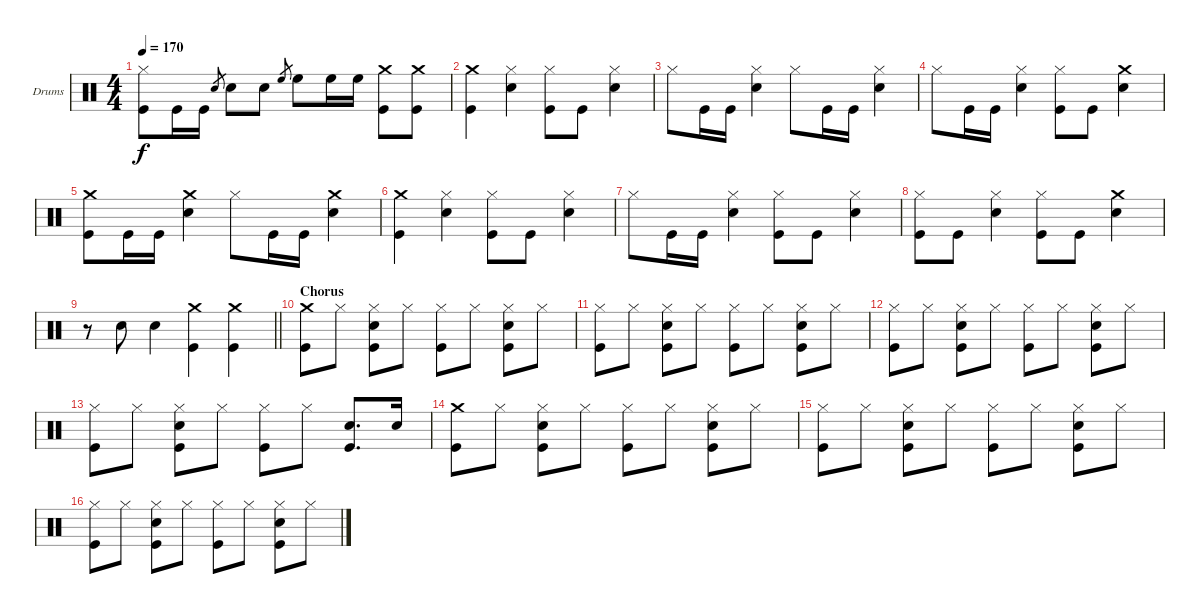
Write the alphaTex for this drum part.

\bracketExtendMode groupsimilarinstruments
\firstSystemTrackNameOrientation horizontal
\otherSystemsTrackNameOrientation horizontal
\track ("Drumkit" "Drums") {instrument percussion}
\staff {score}
\articulation defaults
\ts (4 4)
\tempo 170
\clef neutral
\ks c
("Hi-Hat (closed)" "Kick (hit)").8{dy f} "Kick (hit)".16 "Kick (hit)".16 "Snare (hit) 2".8{gr} "Snare (hit) 2".8 "Snare (hit) 2".8 "High Floor Tom (hit)".8{gr} "High Floor Tom (hit)".8 "High Floor Tom (hit)".16 "High Floor Tom (hit)".16 ("Crash medium (hit)" "Kick (hit)").8 ("Crash medium (hit)" "Kick (hit)").8 |
("Crash medium (hit)" "Kick (hit)").4 ("Hi-Hat (closed)" "Snare (hit) 2").4 ("Hi-Hat (closed)" "Kick (hit)").8 "Kick (hit)".8 ("Hi-Hat (closed)" "Snare (hit) 2").4 |
"Hi-Hat (closed)".8 "Kick (hit)".16 "Kick (hit)".16 ("Hi-Hat (closed)" "Snare (hit) 2").4 "Hi-Hat (closed)".8 "Kick (hit)".16 "Kick (hit)".16 ("Hi-Hat (closed)" "Snare (hit) 2").4 |
"Hi-Hat (closed)".8 "Kick (hit)".16 "Kick (hit)".16 ("Hi-Hat (closed)" "Snare (hit) 2").4 ("Hi-Hat (closed)" "Kick (hit)").8 "Kick (hit)".8 ("Crash medium (hit)" "Snare (hit) 2").4 |
("Crash medium (hit)" "Kick (hit)").8 "Kick (hit)".16 "Kick (hit)".16 ("Crash medium (hit)" "Snare (hit) 2").4 "Hi-Hat (closed)".8 "Kick (hit)".16 "Kick (hit)".16 ("Crash medium (hit)" "Snare (hit) 2").4 |
("Crash medium (hit)" "Kick (hit)").4 ("Hi-Hat (closed)" "Snare (hit) 2").4 ("Hi-Hat (closed)" "Kick (hit)").8 "Kick (hit)".8 ("Hi-Hat (closed)" "Snare (hit) 2").4 |
"Hi-Hat (closed)".8 "Kick (hit)".16 "Kick (hit)".16 ("Hi-Hat (closed)" "Snare (hit) 2").4 ("Hi-Hat (closed)" "Kick (hit)").8 "Kick (hit)".8 ("Hi-Hat (closed)" "Snare (hit) 2").4 |
("Hi-Hat (closed)" "Kick (hit)").8 "Kick (hit)".8 ("Hi-Hat (closed)" "Snare (hit) 2").4 ("Hi-Hat (closed)" "Kick (hit)").8 "Kick (hit)".8 ("Crash medium (hit)" "Snare (hit) 2").4 |
\barLineRight lightlight
r.8 "Snare (hit) 2".8 "Snare (hit) 2".4 ("Crash medium (hit)" "Kick (hit)").4 ("Crash medium (hit)" "Kick (hit)").4 |
\section ("" "Chorus")
("Crash medium (hit)" "Kick (hit)").8 "Hi-Hat (closed)".8 ("Hi-Hat (closed)" "Snare (hit) 2" "Kick (hit)").8 "Hi-Hat (closed)".8 ("Hi-Hat (closed)" "Kick (hit)").8 "Hi-Hat (closed)".8 ("Hi-Hat (closed)" "Snare (hit) 2" "Kick (hit)").8 "Hi-Hat (closed)".8 |
("Hi-Hat (closed)" "Kick (hit)").8 "Hi-Hat (closed)".8 ("Hi-Hat (closed)" "Snare (hit) 2" "Kick (hit)").8 "Hi-Hat (closed)".8 ("Hi-Hat (closed)" "Kick (hit)").8 "Hi-Hat (closed)".8 ("Hi-Hat (closed)" "Snare (hit) 2" "Kick (hit)").8 "Hi-Hat (closed)".8 |
("Hi-Hat (closed)" "Kick (hit)").8 "Hi-Hat (closed)".8 ("Hi-Hat (closed)" "Snare (hit) 2" "Kick (hit)").8 "Hi-Hat (closed)".8 ("Hi-Hat (closed)" "Kick (hit)").8 "Hi-Hat (closed)".8 ("Hi-Hat (closed)" "Snare (hit) 2" "Kick (hit)").8 "Hi-Hat (closed)".8 |
("Hi-Hat (closed)" "Kick (hit)").8 "Hi-Hat (closed)".8 ("Hi-Hat (closed)" "Snare (hit) 2" "Kick (hit)").8 "Hi-Hat (closed)".8 ("Hi-Hat (closed)" "Kick (hit)").8 "Hi-Hat (closed)".8 ("Snare (hit) 2" "Kick (hit)").8{d} "Snare (hit) 2".16 |
("Crash medium (hit)" "Kick (hit)").8 "Hi-Hat (closed)".8 ("Hi-Hat (closed)" "Snare (hit) 2" "Kick (hit)").8 "Hi-Hat (closed)".8 ("Hi-Hat (closed)" "Kick (hit)").8 "Hi-Hat (closed)".8 ("Hi-Hat (closed)" "Snare (hit) 2" "Kick (hit)").8 "Hi-Hat (closed)".8 |
("Hi-Hat (closed)" "Kick (hit)").8 "Hi-Hat (closed)".8 ("Hi-Hat (closed)" "Snare (hit) 2" "Kick (hit)").8 "Hi-Hat (closed)".8 ("Hi-Hat (closed)" "Kick (hit)").8 "Hi-Hat (closed)".8 ("Hi-Hat (closed)" "Snare (hit) 2" "Kick (hit)").8 "Hi-Hat (closed)".8 |
("Hi-Hat (closed)" "Kick (hit)").8 "Hi-Hat (closed)".8 ("Hi-Hat (closed)" "Snare (hit) 2" "Kick (hit)").8 "Hi-Hat (closed)".8 ("Hi-Hat (closed)" "Kick (hit)").8 "Hi-Hat (closed)".8 ("Hi-Hat (closed)" "Snare (hit) 2" "Kick (hit)").8 "Hi-Hat (closed)".8
